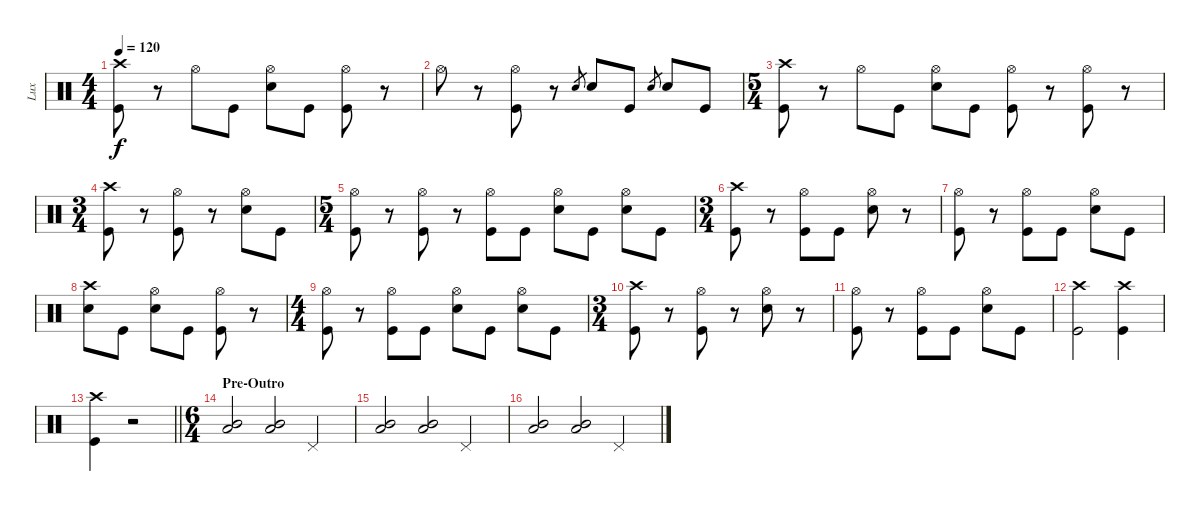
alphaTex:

\track ("Lux" "Lux") {instrument percussion}
\staff {score}
\articulation defaults
\ts (4 4)
\tempo 120
\clef neutral
\ks c
("Crash high (hit)" "Kick (hit)").8{dy f} r.8 "Hi-Hat (open)".8 "Kick (hit)".8 ("Hi-Hat (open)" "Snare (hit) 2").8 "Kick (hit)".8 ("Hi-Hat (open)" "Kick (hit)").8 r.8 |
"Hi-Hat (open)".8 r.8 ("Hi-Hat (open)" "Kick (hit)").8 r.8 "Snare (hit) 2".8{gr} "Snare (hit) 2".8 "Kick (hit)".8 "Snare (hit) 2".8{gr} "Snare (hit) 2".8 "Kick (hit)".8 |
\ts (5 4)
("Crash high (hit)" "Kick (hit)").8 r.8 "Hi-Hat (open)".8 "Kick (hit)".8 ("Hi-Hat (open)" "Snare (hit) 2").8 "Kick (hit)".8 ("Hi-Hat (open)" "Kick (hit)").8 r.8 ("Hi-Hat (open)" "Kick (hit)").8 r.8 |
\ts (3 4)
("Crash high (hit)" "Kick (hit)").8 r.8 ("Hi-Hat (open)" "Kick (hit)").8 r.8 ("Hi-Hat (open)" "Snare (hit) 2").8 "Kick (hit)".8 |
\ts (5 4)
("Hi-Hat (open)" "Kick (hit)").8 r.8 ("Hi-Hat (open)" "Kick (hit)").8 r.8 ("Hi-Hat (open)" "Kick (hit)").8 "Kick (hit)".8 ("Hi-Hat (open)" "Snare (hit) 2").8 "Kick (hit)".8 ("Hi-Hat (open)" "Snare (hit) 2").8 "Kick (hit)".8 |
\ts (3 4)
("Crash high (hit)" "Kick (hit)").8 r.8 ("Hi-Hat (open)" "Kick (hit)").8 "Kick (hit)".8 ("Hi-Hat (open)" "Snare (hit) 2").8 r.8 |
("Hi-Hat (open)" "Kick (hit)").8 r.8 ("Hi-Hat (open)" "Kick (hit)").8 "Kick (hit)".8 ("Hi-Hat (open)" "Snare (hit) 2").8 "Kick (hit)".8 |
("Crash high (hit)" "Snare (hit) 2").8 "Kick (hit)".8 ("Hi-Hat (open)" "Snare (hit) 2").8 "Kick (hit)".8 ("Hi-Hat (open)" "Kick (hit)").8 r.8 |
\ts (4 4)
("Hi-Hat (open)" "Kick (hit)").8 r.8 ("Hi-Hat (open)" "Kick (hit)").8 "Kick (hit)".8 ("Hi-Hat (open)" "Snare (hit) 2").8 "Kick (hit)".8 ("Hi-Hat (open)" "Snare (hit) 2").8 "Kick (hit)".8 |
\ts (3 4)
("Crash high (hit)" "Kick (hit)").8 r.8 ("Hi-Hat (open)" "Kick (hit)").8 r.8 ("Hi-Hat (open)" "Snare (hit) 2").8 r.8 |
("Hi-Hat (open)" "Kick (hit)").8 r.8 ("Hi-Hat (open)" "Kick (hit)").8 "Kick (hit)".8 ("Hi-Hat (open)" "Snare (hit) 2").8 "Kick (hit)".8 |
("Crash high (hit)" "Kick (hit)").2 ("Crash high (hit)" "Kick (hit)").4 |
\barLineRight lightlight
("Crash high (hit)" "Kick (hit)").4 r.2 |
\ts (6 4)
\section ("" "Pre-Outro")
("Mid Tom (hit)" "Low Tom (hit)").2 ("Mid Tom (hit)" "Low Tom (hit)").2 "Pedal Hi-Hat (hit)".2 |
("Mid Tom (hit)" "Low Tom (hit)").2 ("Mid Tom (hit)" "Low Tom (hit)").2 "Pedal Hi-Hat (hit)".2 |
("Mid Tom (hit)" "Low Tom (hit)").2 ("Mid Tom (hit)" "Low Tom (hit)").2 "Pedal Hi-Hat (hit)".2
